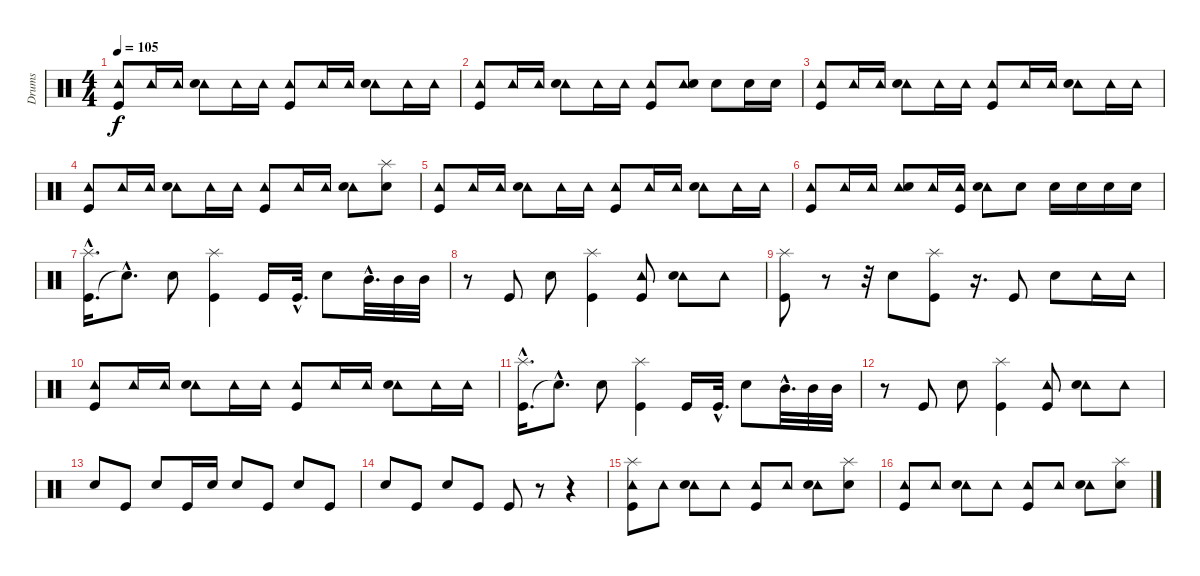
\track ("Drums" "Drums") {instrument percussion}
\staff {score}
\articulation defaults
\ts (4 4)
\tempo 105
\clef neutral
\ks c
("Tambourine (hit)" "Kick (hit)").8{dy f} "Tambourine (hit)".16 "Tambourine (hit)".16 ("Tambourine (hit)" "Snare (hit) 2").8 "Tambourine (hit)".16 "Tambourine (hit)".16 ("Tambourine (hit)" "Kick (hit)").8 "Tambourine (hit)".16 "Tambourine (hit)".16 ("Tambourine (hit)" "Snare (hit) 2").8 "Tambourine (hit)".16 "Tambourine (hit)".16 |
("Tambourine (hit)" "Kick (hit)").8 "Tambourine (hit)".16 "Tambourine (hit)".16 ("Tambourine (hit)" "Snare (hit) 2").8 "Tambourine (hit)".16 "Tambourine (hit)".16 ("Tambourine (hit)" "Kick (hit)").8 ("Tambourine (hit)" "Snare (hit) 2").8 "Snare (hit) 2".8 "Snare (hit) 2".16 "Snare (hit) 2".16 |
("Tambourine (hit)" "Kick (hit)").8 "Tambourine (hit)".16 "Tambourine (hit)".16 ("Tambourine (hit)" "Snare (hit) 2").8 "Tambourine (hit)".16 "Tambourine (hit)".16 ("Tambourine (hit)" "Kick (hit)").8 "Tambourine (hit)".16 "Tambourine (hit)".16 ("Tambourine (hit)" "Snare (hit) 2").8 "Tambourine (hit)".16 "Tambourine (hit)".16 |
("Tambourine (hit)" "Kick (hit)").8 "Tambourine (hit)".16 "Tambourine (hit)".16 ("Tambourine (hit)" "Snare (hit) 2").8 "Tambourine (hit)".16 "Tambourine (hit)".16 ("Tambourine (hit)" "Kick (hit)").8 "Tambourine (hit)".16 "Tambourine (hit)".16 ("Tambourine (hit)" "Snare (hit) 2").8 ("Splash (hit)" "Snare (hit) 2").8 |
("Tambourine (hit)" "Kick (hit)").8 "Tambourine (hit)".16 "Tambourine (hit)".16 ("Tambourine (hit)" "Snare (hit) 2").8 "Tambourine (hit)".16 "Tambourine (hit)".16 ("Tambourine (hit)" "Kick (hit)").8 "Tambourine (hit)".16 "Tambourine (hit)".16 ("Tambourine (hit)" "Snare (hit) 2").8 "Tambourine (hit)".16 "Tambourine (hit)".16 |
("Tambourine (hit)" "Kick (hit)").8 "Tambourine (hit)".16 "Tambourine (hit)".16 ("Tambourine (hit)" "Snare (hit) 2").8 "Tambourine (hit)".16 ("Tambourine (hit)" "Kick (hit)").16 ("Tambourine (hit)" "Snare (hit) 2").8 "Snare (hit) 2".8 "Snare (hit) 2".16 "Snare (hit) 2".16 "Snare (hit) 2".16 "Snare (hit) 2".16 |
("Kick (hit)"{hac} "Splash (hit)"{hac}).16{d} "Snare (hit)"{hac t}.8{d} "Snare (hit) 2".8 ("Kick (hit)" "Splash (hit)").4 "Kick (hit)".16 "Kick (hit)"{hac}.32{d} "Snare (hit) 2".8 "Mid Tom (hit)"{hac}.32{d} "Mid Tom (hit)".32 "Mid Tom (hit)".32 |
r.8 "Kick (hit)".8 "Snare (hit) 2".8 ("Kick (hit)" "Splash (hit)").4 ("Tambourine (hit)" "Kick (hit)").8 ("Tambourine (hit)" "Snare (hit) 2").8 "Tambourine (hit)".8 |
("Kick (hit)" "Splash (hit)").8 r.8 r.32 "Snare (hit) 2".8 ("Kick (hit)" "Splash (hit)").8 r.16{d} "Kick (hit)".8 "Snare (hit) 2".8 "Tambourine (hit)".16 "Tambourine (hit)".16 |
("Tambourine (hit)" "Kick (hit)").8 "Tambourine (hit)".16 "Tambourine (hit)".16 ("Tambourine (hit)" "Snare (hit) 2").8 "Tambourine (hit)".16 "Tambourine (hit)".16 ("Tambourine (hit)" "Kick (hit)").8 "Tambourine (hit)".16 "Tambourine (hit)".16 ("Tambourine (hit)" "Snare (hit) 2").8 "Tambourine (hit)".16 "Tambourine (hit)".16 |
("Kick (hit)"{hac} "Splash (hit)"{hac}).16{d} "Snare (hit)"{hac t}.8{d} "Snare (hit) 2".8 ("Kick (hit)" "Splash (hit)").4 "Kick (hit)".16 "Kick (hit)"{hac}.32{d} "Snare (hit) 2".8 "Mid Tom (hit)"{hac}.32{d} "Mid Tom (hit)".32 "Mid Tom (hit)".32 |
r.8 "Kick (hit)".8 "Snare (hit) 2".8 ("Kick (hit)" "Splash (hit)").4 ("Tambourine (hit)" "Kick (hit)").8 ("Tambourine (hit)" "Snare (hit) 2").8 "Tambourine (hit)".8 |
"Snare (hit) 2".8 "Kick (hit)".8 "Snare (hit) 2".8 "Kick (hit)".16 "Snare (hit) 2".16 "Snare (hit) 2".8 "Kick (hit)".8 "Snare (hit) 2".8 "Kick (hit)".8 |
"Snare (hit) 2".8 "Kick (hit)".8 "Snare (hit) 2".8 "Kick (hit)".8 "Kick (hit)".8 r.8 r.4 |
("Tambourine (hit)" "Kick (hit)" "Splash (hit)").8 "Tambourine (hit)".8 ("Tambourine (hit)" "Snare (hit) 2").8 "Tambourine (hit)".8 ("Tambourine (hit)" "Kick (hit)").8 "Tambourine (hit)".8 ("Tambourine (hit)" "Snare (hit) 2").8 ("Splash (hit)" "Snare (hit) 2").8 |
("Tambourine (hit)" "Kick (hit)").8 "Tambourine (hit)".8 ("Tambourine (hit)" "Snare (hit) 2").8 "Tambourine (hit)".8 ("Tambourine (hit)" "Kick (hit)").8 "Tambourine (hit)".8 ("Tambourine (hit)" "Snare (hit) 2").8 ("Splash (hit)" "Snare (hit) 2").8
